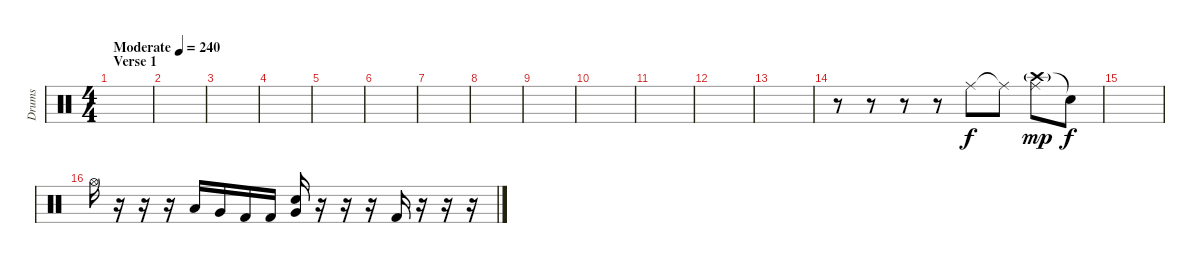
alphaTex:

\track ("Drums" "Drums") {instrument percussion}
\staff {score}
\articulation defaults
\ts (4 4)
\section ("" "Verse 1")
\tempo (240 "Moderate")
\clef neutral
\ks c
|
|
|
|
|
|
|
|
|
|
|
|
|
r.8 r.8 r.8 r.8 "Ride (middle)".8 "Ride (middle)"{t}.8 ("Crash high (hit)"{g} "Ride (middle)").8{dy mp} "Snare (hit)"{t}.8{dy f} |
|
"Hi-Hat (open)".16 r.16 r.16 r.16 "Low Tom (hit)".16 "Very Low Tom (hit)".16 "Kick (hit) 2".16 "Kick (hit) 2".16 ("Electric Snare (hit)" "Very Low Tom (hit)").16 r.16 r.16 r.16 "Kick (hit) 2".16 r.16 r.16 r.16
